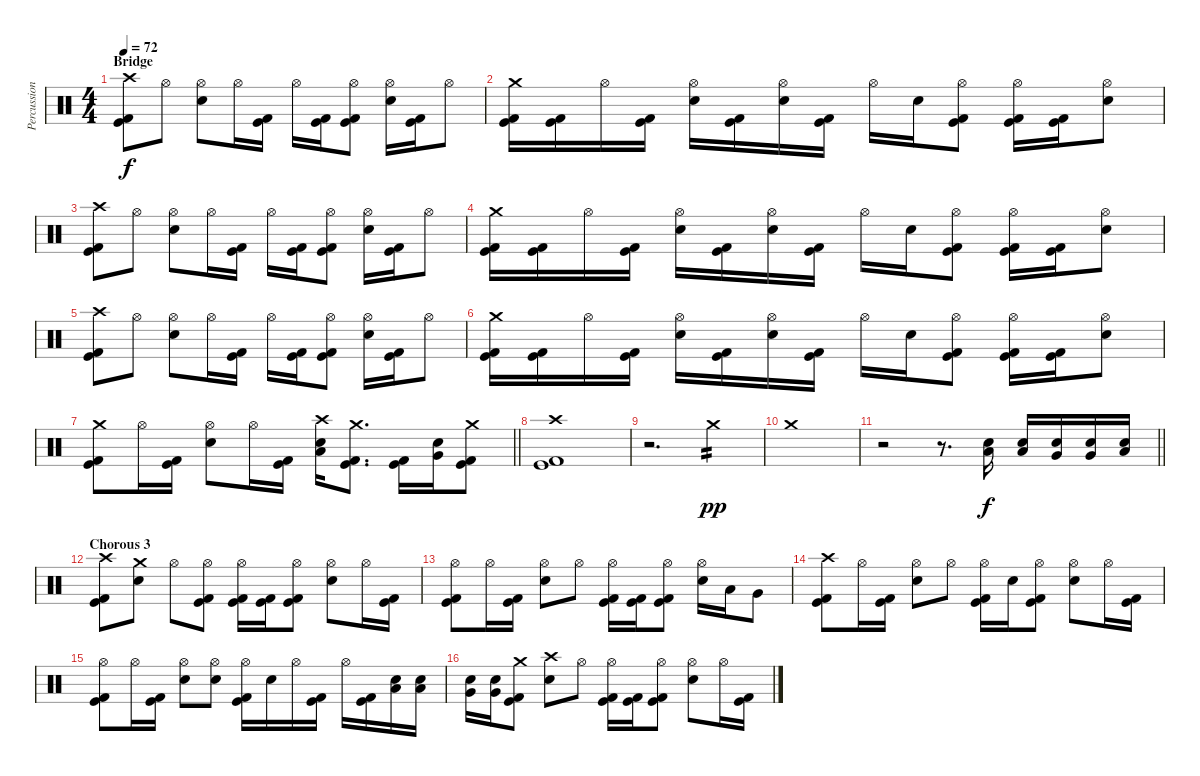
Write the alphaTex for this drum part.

\track ("Percussion" "Percussion") {instrument percussion}
\staff {score}
\articulation defaults
\ts (4 4)
\section ("" "Bridge")
\tempo 72
\clef neutral
\ks c
("Crash high (hit)" "Kick (hit)" "Kick (hit) 2").8{dy f} "Hi-Hat (open)".8 ("Hi-Hat (open)" "Electric Snare (hit)").8 "Hi-Hat (open)".16 ("Kick (hit)" "Kick (hit) 2").16 "Hi-Hat (open)".16 ("Kick (hit)" "Kick (hit) 2").16 ("Hi-Hat (open)" "Kick (hit)" "Kick (hit) 2").8 ("Hi-Hat (open)" "Electric Snare (hit)").16 ("Kick (hit)" "Kick (hit) 2").16 "Hi-Hat (open)".8 |
("Crash medium (hit)" "Kick (hit)" "Kick (hit) 2").16 ("Kick (hit)" "Kick (hit) 2").16 "Hi-Hat (open)".16 ("Kick (hit)" "Kick (hit) 2").16 ("Hi-Hat (open)" "Electric Snare (hit)").16 ("Kick (hit)" "Kick (hit) 2").16 ("Hi-Hat (open)" "Electric Snare (hit)").16 ("Kick (hit)" "Kick (hit) 2").16 "Hi-Hat (open)".16 "Electric Snare (hit)".16 ("Hi-Hat (open)" "Kick (hit)" "Kick (hit) 2").8 ("Hi-Hat (open)" "Kick (hit)" "Kick (hit) 2").16 ("Kick (hit)" "Kick (hit) 2").16 ("Hi-Hat (open)" "Electric Snare (hit)").8 |
("Crash high (hit)" "Kick (hit)" "Kick (hit) 2").8 "Hi-Hat (open)".8 ("Hi-Hat (open)" "Electric Snare (hit)").8 "Hi-Hat (open)".16 ("Kick (hit)" "Kick (hit) 2").16 "Hi-Hat (open)".16 ("Kick (hit)" "Kick (hit) 2").16 ("Hi-Hat (open)" "Kick (hit)" "Kick (hit) 2").8 ("Hi-Hat (open)" "Electric Snare (hit)").16 ("Kick (hit)" "Kick (hit) 2").16 "Hi-Hat (open)".8 |
("Crash medium (hit)" "Kick (hit)" "Kick (hit) 2").16 ("Kick (hit)" "Kick (hit) 2").16 "Hi-Hat (open)".16 ("Kick (hit)" "Kick (hit) 2").16 ("Hi-Hat (open)" "Electric Snare (hit)").16 ("Kick (hit)" "Kick (hit) 2").16 ("Hi-Hat (open)" "Electric Snare (hit)").16 ("Kick (hit)" "Kick (hit) 2").16 "Hi-Hat (open)".16 "Electric Snare (hit)".16 ("Hi-Hat (open)" "Kick (hit)" "Kick (hit) 2").8 ("Hi-Hat (open)" "Kick (hit)" "Kick (hit) 2").16 ("Kick (hit)" "Kick (hit) 2").16 ("Hi-Hat (open)" "Electric Snare (hit)").8 |
("Crash high (hit)" "Kick (hit)" "Kick (hit) 2").8 "Hi-Hat (open)".8 ("Hi-Hat (open)" "Electric Snare (hit)").8 "Hi-Hat (open)".16 ("Kick (hit)" "Kick (hit) 2").16 "Hi-Hat (open)".16 ("Kick (hit)" "Kick (hit) 2").16 ("Hi-Hat (open)" "Kick (hit)" "Kick (hit) 2").8 ("Hi-Hat (open)" "Electric Snare (hit)").16 ("Kick (hit)" "Kick (hit) 2").16 "Hi-Hat (open)".8 |
("Crash medium (hit)" "Kick (hit)" "Kick (hit) 2").16 ("Kick (hit)" "Kick (hit) 2").16 "Hi-Hat (open)".16 ("Kick (hit)" "Kick (hit) 2").16 ("Hi-Hat (open)" "Electric Snare (hit)").16 ("Kick (hit)" "Kick (hit) 2").16 ("Hi-Hat (open)" "Electric Snare (hit)").16 ("Kick (hit)" "Kick (hit) 2").16 "Hi-Hat (open)".16 "Electric Snare (hit)".16 ("Hi-Hat (open)" "Kick (hit)" "Kick (hit) 2").8 ("Hi-Hat (open)" "Kick (hit)" "Kick (hit) 2").16 ("Kick (hit)" "Kick (hit) 2").16 ("Hi-Hat (open)" "Electric Snare (hit)").8 |
\barLineRight lightlight
("Crash medium (hit)" "Kick (hit)" "Kick (hit) 2").8 "Hi-Hat (open)".16 ("Kick (hit)" "Kick (hit) 2").16 ("Hi-Hat (open)" "Electric Snare (hit)").8 "Hi-Hat (open)".16 ("Kick (hit)" "Kick (hit) 2").16 ("Crash high (hit)" "Electric Snare (hit)" "Low Tom (hit)").16 ("Crash medium (hit)" "Kick (hit)" "Kick (hit) 2").8{d} ("Kick (hit)" "Kick (hit) 2").16 ("Electric Snare (hit)" "Very Low Tom (hit)").16 ("Crash medium (hit)" "Kick (hit)" "Kick (hit) 2").8 |
\section ("" "")
("Crash high (hit)" "Kick (hit)" "Kick (hit) 2").1 |
r.2{d} "Crash medium (hit)".4{tp 2 dy pp} |
"Crash medium (hit)".1 |
\barLineRight lightlight
r.2 r.8{d} ("Electric Snare (hit)" "Low Tom (hit)").16{dy f} ("Electric Snare (hit)" "Low Tom (hit)").16 ("Electric Snare (hit)" "Very Low Tom (hit)").16 ("Electric Snare (hit)" "Very Low Tom (hit)").16 ("Electric Snare (hit)" "Low Floor Tom (hit)").16 |
\section ("" "Chorous 3")
("Crash high (hit)" "Kick (hit)" "Kick (hit) 2").8 ("Crash medium (hit)" "Electric Snare (hit)").8 "Hi-Hat (open)".8 ("Hi-Hat (open)" "Kick (hit)" "Kick (hit) 2").8 ("Hi-Hat (open)" "Kick (hit)" "Kick (hit) 2").16 ("Kick (hit)" "Kick (hit) 2").16 ("Hi-Hat (open)" "Kick (hit)" "Kick (hit) 2").8 ("Hi-Hat (open)" "Electric Snare (hit)").8 "Hi-Hat (open)".16 ("Kick (hit)" "Kick (hit) 2").16 |
("Hi-Hat (open)" "Kick (hit)" "Kick (hit) 2").8 "Hi-Hat (open)".16 ("Kick (hit)" "Kick (hit) 2").16 ("Hi-Hat (open)" "Electric Snare (hit)").8 "Hi-Hat (open)".8 ("Hi-Hat (open)" "Kick (hit)" "Kick (hit) 2").16 ("Kick (hit)" "Kick (hit) 2").16 ("Hi-Hat (open)" "Kick (hit)" "Kick (hit) 2").8 ("Hi-Hat (open)" "Electric Snare (hit)").16 "Low Tom (hit)".16 "Very Low Tom (hit)".8 |
("Crash high (hit)" "Kick (hit)" "Kick (hit) 2").8 "Hi-Hat (open)".16 ("Kick (hit)" "Kick (hit) 2").16 ("Hi-Hat (open)" "Electric Snare (hit)").8 "Hi-Hat (open)".8 ("Hi-Hat (open)" "Kick (hit)" "Kick (hit) 2").16 "Electric Snare (hit)".16 ("Hi-Hat (open)" "Kick (hit)" "Kick (hit) 2").8 ("Hi-Hat (open)" "Electric Snare (hit)").8 "Hi-Hat (open)".16 ("Kick (hit)" "Kick (hit) 2").16 |
("Hi-Hat (open)" "Kick (hit)" "Kick (hit) 2").8 "Hi-Hat (open)".16 ("Kick (hit)" "Kick (hit) 2").16 ("Hi-Hat (open)" "Electric Snare (hit)").8 ("Hi-Hat (open)" "Electric Snare (hit)").8 ("Hi-Hat (open)" "Kick (hit)" "Kick (hit) 2").16 "Electric Snare (hit)".16 "Hi-Hat (open)".16 ("Kick (hit)" "Kick (hit) 2").16 "Hi-Hat (open)".16 ("Kick (hit)" "Kick (hit) 2").16 ("Electric Snare (hit)" "Low Tom (hit)").16 ("Electric Snare (hit)" "Low Tom (hit)").16 |
("Electric Snare (hit)" "Very Low Tom (hit)").16 ("Electric Snare (hit)" "Very Low Tom (hit)").16 ("Crash medium (hit)" "Kick (hit)" "Kick (hit) 2").8 ("Crash high (hit)" "Electric Snare (hit)").8 "Hi-Hat (open)".8 ("Hi-Hat (open)" "Kick (hit)" "Kick (hit) 2").16 ("Kick (hit)" "Kick (hit) 2").16 ("Hi-Hat (open)" "Kick (hit)" "Kick (hit) 2").8 ("Hi-Hat (open)" "Electric Snare (hit)").8 "Hi-Hat (open)".16 ("Kick (hit)" "Kick (hit) 2").16
